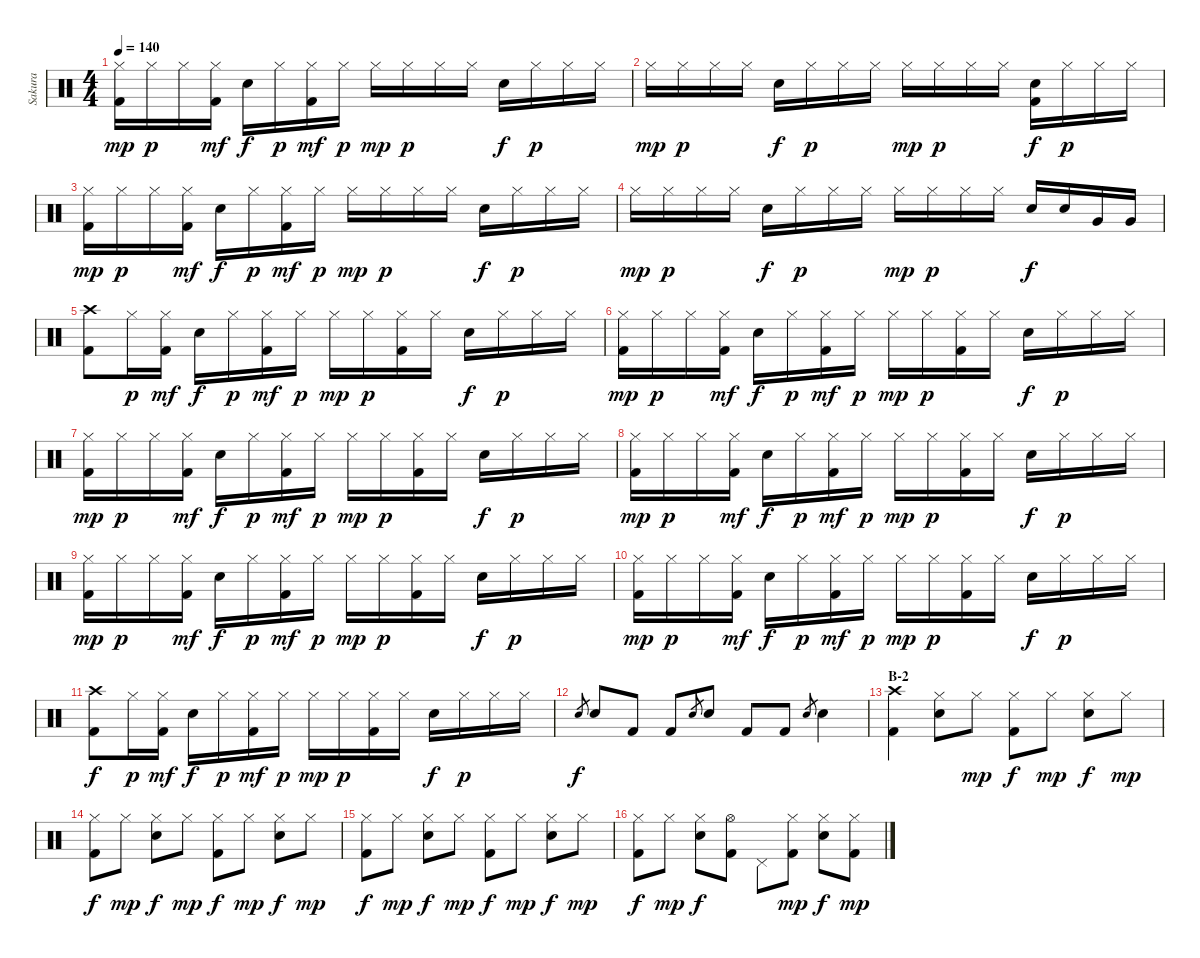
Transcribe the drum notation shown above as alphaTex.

\track ("Sakura" "Sakura") {instrument percussion}
\staff {score}
\articulation defaults
\ts (4 4)
\tempo 140
\clef neutral
\ks c
("Hi-Hat (closed)" "Kick (hit) 2").16{dy mp} "Hi-Hat (closed)".16{dy p} "Hi-Hat (closed)".16 ("Hi-Hat (closed)" "Kick (hit) 2").16{dy mf} "Electric Snare (hit)".16{dy f} "Hi-Hat (closed)".16{dy p} ("Hi-Hat (closed)" "Kick (hit) 2").16{dy mf} "Hi-Hat (closed)".16{dy p} "Hi-Hat (closed)".16{dy mp} "Hi-Hat (closed)".16{dy p} "Hi-Hat (closed)".16 "Hi-Hat (closed)".16 "Electric Snare (hit)".16{dy f} "Hi-Hat (closed)".16{dy p} "Hi-Hat (closed)".16 "Hi-Hat (closed)".16 |
"Hi-Hat (closed)".16{dy mp} "Hi-Hat (closed)".16{dy p} "Hi-Hat (closed)".16 "Hi-Hat (closed)".16 "Electric Snare (hit)".16{dy f} "Hi-Hat (closed)".16{dy p} "Hi-Hat (closed)".16 "Hi-Hat (closed)".16 "Hi-Hat (closed)".16{dy mp} "Hi-Hat (closed)".16{dy p} "Hi-Hat (closed)".16 "Hi-Hat (closed)".16 ("Electric Snare (hit)" "Kick (hit) 2").16{dy f} "Hi-Hat (closed)".16{dy p} "Hi-Hat (closed)".16 "Hi-Hat (closed)".16 |
("Hi-Hat (closed)" "Kick (hit) 2").16{dy mp} "Hi-Hat (closed)".16{dy p} "Hi-Hat (closed)".16 ("Hi-Hat (closed)" "Kick (hit) 2").16{dy mf} "Electric Snare (hit)".16{dy f} "Hi-Hat (closed)".16{dy p} ("Hi-Hat (closed)" "Kick (hit) 2").16{dy mf} "Hi-Hat (closed)".16{dy p} "Hi-Hat (closed)".16{dy mp} "Hi-Hat (closed)".16{dy p} "Hi-Hat (closed)".16 "Hi-Hat (closed)".16 "Electric Snare (hit)".16{dy f} "Hi-Hat (closed)".16{dy p} "Hi-Hat (closed)".16 "Hi-Hat (closed)".16 |
"Hi-Hat (closed)".16{dy mp} "Hi-Hat (closed)".16{dy p} "Hi-Hat (closed)".16 "Hi-Hat (closed)".16 "Electric Snare (hit)".16{dy f} "Hi-Hat (closed)".16{dy p} "Hi-Hat (closed)".16 "Hi-Hat (closed)".16 "Hi-Hat (closed)".16{dy mp} "Hi-Hat (closed)".16{dy p} "Hi-Hat (closed)".16 "Hi-Hat (closed)".16 "Electric Snare (hit)".16{dy f} "Electric Snare (hit)".16 "Very Low Tom (hit)".16 "Very Low Tom (hit)".16 |
("Crash high (hit)" "Kick (hit) 2").8 "Hi-Hat (closed)".16{dy p} ("Hi-Hat (closed)" "Kick (hit) 2").16{dy mf} "Electric Snare (hit)".16{dy f} "Hi-Hat (closed)".16{dy p} ("Hi-Hat (closed)" "Kick (hit) 2").16{dy mf} "Hi-Hat (closed)".16{dy p} "Hi-Hat (closed)".16{dy mp} "Hi-Hat (closed)".16{dy p} ("Hi-Hat (closed)" "Kick (hit) 2").16 "Hi-Hat (closed)".16 "Electric Snare (hit)".16{dy f} "Hi-Hat (closed)".16{dy p} "Hi-Hat (closed)".16 "Hi-Hat (closed)".16 |
("Hi-Hat (closed)" "Kick (hit) 2").16{dy mp} "Hi-Hat (closed)".16{dy p} "Hi-Hat (closed)".16 ("Hi-Hat (closed)" "Kick (hit) 2").16{dy mf} "Electric Snare (hit)".16{dy f} "Hi-Hat (closed)".16{dy p} ("Hi-Hat (closed)" "Kick (hit) 2").16{dy mf} "Hi-Hat (closed)".16{dy p} "Hi-Hat (closed)".16{dy mp} "Hi-Hat (closed)".16{dy p} ("Hi-Hat (closed)" "Kick (hit) 2").16 "Hi-Hat (closed)".16 "Electric Snare (hit)".16{dy f} "Hi-Hat (closed)".16{dy p} "Hi-Hat (closed)".16 "Hi-Hat (closed)".16 |
("Hi-Hat (closed)" "Kick (hit) 2").16{dy mp} "Hi-Hat (closed)".16{dy p} "Hi-Hat (closed)".16 ("Hi-Hat (closed)" "Kick (hit) 2").16{dy mf} "Electric Snare (hit)".16{dy f} "Hi-Hat (closed)".16{dy p} ("Hi-Hat (closed)" "Kick (hit) 2").16{dy mf} "Hi-Hat (closed)".16{dy p} "Hi-Hat (closed)".16{dy mp} "Hi-Hat (closed)".16{dy p} ("Hi-Hat (closed)" "Kick (hit) 2").16 "Hi-Hat (closed)".16 "Electric Snare (hit)".16{dy f} "Hi-Hat (closed)".16{dy p} "Hi-Hat (closed)".16 "Hi-Hat (closed)".16 |
("Hi-Hat (closed)" "Kick (hit) 2").16{dy mp} "Hi-Hat (closed)".16{dy p} "Hi-Hat (closed)".16 ("Hi-Hat (closed)" "Kick (hit) 2").16{dy mf} "Electric Snare (hit)".16{dy f} "Hi-Hat (closed)".16{dy p} ("Hi-Hat (closed)" "Kick (hit) 2").16{dy mf} "Hi-Hat (closed)".16{dy p} "Hi-Hat (closed)".16{dy mp} "Hi-Hat (closed)".16{dy p} ("Hi-Hat (closed)" "Kick (hit) 2").16 "Hi-Hat (closed)".16 "Electric Snare (hit)".16{dy f} "Hi-Hat (closed)".16{dy p} "Hi-Hat (closed)".16 "Hi-Hat (closed)".16 |
("Hi-Hat (closed)" "Kick (hit) 2").16{dy mp} "Hi-Hat (closed)".16{dy p} "Hi-Hat (closed)".16 ("Hi-Hat (closed)" "Kick (hit) 2").16{dy mf} "Electric Snare (hit)".16{dy f} "Hi-Hat (closed)".16{dy p} ("Hi-Hat (closed)" "Kick (hit) 2").16{dy mf} "Hi-Hat (closed)".16{dy p} "Hi-Hat (closed)".16{dy mp} "Hi-Hat (closed)".16{dy p} ("Hi-Hat (closed)" "Kick (hit) 2").16 "Hi-Hat (closed)".16 "Electric Snare (hit)".16{dy f} "Hi-Hat (closed)".16{dy p} "Hi-Hat (closed)".16 "Hi-Hat (closed)".16 |
("Hi-Hat (closed)" "Kick (hit) 2").16{dy mp} "Hi-Hat (closed)".16{dy p} "Hi-Hat (closed)".16 ("Hi-Hat (closed)" "Kick (hit) 2").16{dy mf} "Electric Snare (hit)".16{dy f} "Hi-Hat (closed)".16{dy p} ("Hi-Hat (closed)" "Kick (hit) 2").16{dy mf} "Hi-Hat (closed)".16{dy p} "Hi-Hat (closed)".16{dy mp} "Hi-Hat (closed)".16{dy p} ("Hi-Hat (closed)" "Kick (hit) 2").16 "Hi-Hat (closed)".16 "Electric Snare (hit)".16{dy f} "Hi-Hat (closed)".16{dy p} "Hi-Hat (closed)".16 "Hi-Hat (closed)".16 |
("Crash high (hit)" "Kick (hit) 2").8{dy f} "Hi-Hat (closed)".16{dy p} ("Hi-Hat (closed)" "Kick (hit) 2").16{dy mf} "Electric Snare (hit)".16{dy f} "Hi-Hat (closed)".16{dy p} ("Hi-Hat (closed)" "Kick (hit) 2").16{dy mf} "Hi-Hat (closed)".16{dy p} "Hi-Hat (closed)".16{dy mp} "Hi-Hat (closed)".16{dy p} ("Hi-Hat (closed)" "Kick (hit) 2").16 "Hi-Hat (closed)".16 "Electric Snare (hit)".16{dy f} "Hi-Hat (closed)".16{dy p} "Hi-Hat (closed)".16 "Hi-Hat (closed)".16 |
"Electric Snare (hit)".8{gr dy f} "Electric Snare (hit)".8 "Kick (hit) 2".8 "Kick (hit) 2".8 "Electric Snare (hit)".8{gr} "Electric Snare (hit)".8 "Kick (hit) 2".8 "Kick (hit) 2".8 "Electric Snare (hit)".8{gr} "Electric Snare (hit)".4 |
\section ("" "B-2")
("Crash high (hit)" "Kick (hit) 2").4 ("Hi-Hat (closed)" "Electric Snare (hit)").8 "Hi-Hat (closed)".8{dy mp} ("Hi-Hat (closed)" "Kick (hit) 2").8{dy f} "Hi-Hat (closed)".8{dy mp} ("Hi-Hat (closed)" "Electric Snare (hit)").8{dy f} "Hi-Hat (closed)".8{dy mp} |
("Hi-Hat (closed)" "Kick (hit) 2").8{dy f} "Hi-Hat (closed)".8{dy mp} ("Hi-Hat (closed)" "Electric Snare (hit)").8{dy f} "Hi-Hat (closed)".8{dy mp} ("Hi-Hat (closed)" "Kick (hit) 2").8{dy f} "Hi-Hat (closed)".8{dy mp} ("Hi-Hat (closed)" "Electric Snare (hit)").8{dy f} "Hi-Hat (closed)".8{dy mp} |
("Hi-Hat (closed)" "Kick (hit) 2").8{dy f} "Hi-Hat (closed)".8{dy mp} ("Hi-Hat (closed)" "Electric Snare (hit)").8{dy f} "Hi-Hat (closed)".8{dy mp} ("Hi-Hat (closed)" "Kick (hit) 2").8{dy f} "Hi-Hat (closed)".8{dy mp} ("Hi-Hat (closed)" "Electric Snare (hit)").8{dy f} "Hi-Hat (closed)".8{dy mp} |
("Hi-Hat (closed)" "Kick (hit) 2").8{dy f} "Hi-Hat (closed)".8{dy mp} ("Hi-Hat (closed)" "Electric Snare (hit)").8{dy f} ("Hi-Hat (open)" "Kick (hit) 2").8 "Pedal Hi-Hat (hit)".8 ("Hi-Hat (closed)" "Kick (hit) 2").8{dy mp} ("Hi-Hat (closed)" "Electric Snare (hit)").8{dy f} ("Hi-Hat (closed)" "Kick (hit) 2").8{dy mp}
